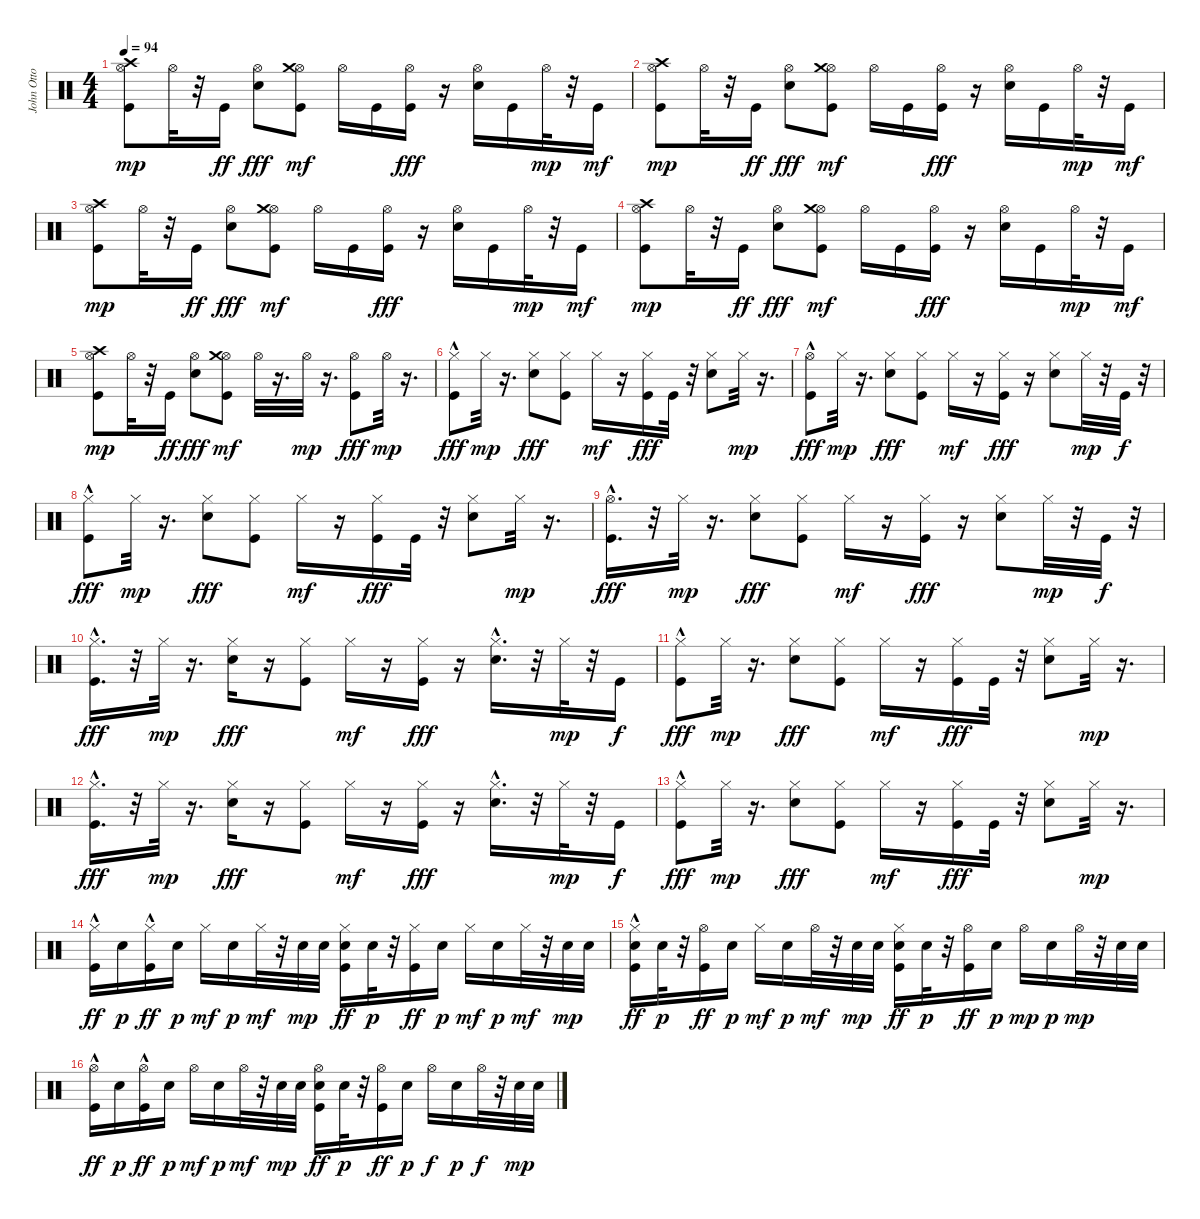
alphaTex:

\track ("John Otto" "John Otto") {instrument percussion}
\staff {score}
\articulation defaults
\ts (4 4)
\tempo 94
\clef neutral
\ks c
("Hi-Hat (open)" "Kick (hit)" "Crash high (hit)").8{dy mp} "Hi-Hat (open)".32 r.32 "Kick (hit)".16{dy ff} ("Hi-Hat (open)" "Electric Snare (hit)").8{dy fff} ("Hi-Hat (open)" "Kick (hit)" "Crash medium (hit)").8{dy mf} "Hi-Hat (open)".16 "Kick (hit)".16 ("Hi-Hat (open)" "Kick (hit)").16{dy fff} r.16 ("Hi-Hat (open)" "Electric Snare (hit)").16 "Kick (hit)".16 "Hi-Hat (open)".32{dy mp} r.32 "Kick (hit)".16{dy mf} |
("Hi-Hat (open)" "Kick (hit)" "Crash high (hit)").8{dy mp} "Hi-Hat (open)".32 r.32 "Kick (hit)".16{dy ff} ("Hi-Hat (open)" "Electric Snare (hit)").8{dy fff} ("Hi-Hat (open)" "Kick (hit)" "Crash medium (hit)").8{dy mf} "Hi-Hat (open)".16 "Kick (hit)".16 ("Hi-Hat (open)" "Kick (hit)").16{dy fff} r.16 ("Hi-Hat (open)" "Electric Snare (hit)").16 "Kick (hit)".16 "Hi-Hat (open)".32{dy mp} r.32 "Kick (hit)".16{dy mf} |
("Hi-Hat (open)" "Kick (hit)" "Crash high (hit)").8{dy mp} "Hi-Hat (open)".32 r.32 "Kick (hit)".16{dy ff} ("Hi-Hat (open)" "Electric Snare (hit)").8{dy fff} ("Hi-Hat (open)" "Kick (hit)" "Crash medium (hit)").8{dy mf} "Hi-Hat (open)".16 "Kick (hit)".16 ("Hi-Hat (open)" "Kick (hit)").16{dy fff} r.16 ("Hi-Hat (open)" "Electric Snare (hit)").16 "Kick (hit)".16 "Hi-Hat (open)".32{dy mp} r.32 "Kick (hit)".16{dy mf} |
("Hi-Hat (open)" "Kick (hit)" "Crash high (hit)").8{dy mp} "Hi-Hat (open)".32 r.32 "Kick (hit)".16{dy ff} ("Hi-Hat (open)" "Electric Snare (hit)").8{dy fff} ("Hi-Hat (open)" "Kick (hit)" "Crash medium (hit)").8{dy mf} "Hi-Hat (open)".16 "Kick (hit)".16 ("Hi-Hat (open)" "Kick (hit)").16{dy fff} r.16 ("Hi-Hat (open)" "Electric Snare (hit)").16 "Kick (hit)".16 "Hi-Hat (open)".32{dy mp} r.32 "Kick (hit)".16{dy mf} |
("Hi-Hat (open)" "Kick (hit)" "Crash high (hit)").8{dy mp} "Hi-Hat (open)".32 r.32 "Kick (hit)".16{dy ff} ("Hi-Hat (open)" "Electric Snare (hit)").8{dy fff} ("Hi-Hat (open)" "Kick (hit)" "Crash medium (hit)").8{dy mf} "Hi-Hat (open)".32 r.16{d} "Hi-Hat (open)".32{dy mp} r.16{d} ("Hi-Hat (open)" "Kick (hit)").8{dy fff} "Hi-Hat (open)".32{dy mp} r.16{d} |
("Hi-Hat (closed)"{hac} "Kick (hit)").8{dy fff} "Hi-Hat (closed)".32{dy mp} r.16{d} ("Hi-Hat (closed)" "Electric Snare (hit)").8{dy fff} ("Hi-Hat (closed)" "Kick (hit)").8 "Hi-Hat (closed)".16{dy mf} r.16 ("Hi-Hat (closed)" "Kick (hit)").16{dy fff} "Kick (hit)".32 r.32 ("Hi-Hat (closed)" "Electric Snare (hit)").8 "Hi-Hat (closed)".32{dy mp} r.16{d} |
("Hi-Hat (open)"{hac} "Kick (hit)").8{dy fff} "Hi-Hat (closed)".32{dy mp} r.16{d} ("Hi-Hat (closed)" "Electric Snare (hit)").8{dy fff} ("Hi-Hat (closed)" "Kick (hit)").8 "Hi-Hat (closed)".16{dy mf} r.16 ("Hi-Hat (closed)" "Kick (hit)").16{dy fff} r.16 ("Hi-Hat (closed)" "Electric Snare (hit)").8 "Hi-Hat (closed)".32{dy mp} r.32 "Kick (hit)".32{dy f} r.32 |
("Hi-Hat (closed)"{hac} "Kick (hit)").8{dy fff} "Hi-Hat (closed)".32{dy mp} r.16{d} ("Hi-Hat (closed)" "Electric Snare (hit)").8{dy fff} ("Hi-Hat (closed)" "Kick (hit)").8 "Hi-Hat (closed)".16{dy mf} r.16 ("Hi-Hat (closed)" "Kick (hit)").16{dy fff} "Kick (hit)".32 r.32 ("Hi-Hat (closed)" "Electric Snare (hit)").8 "Hi-Hat (closed)".32{dy mp} r.16{d} |
("Hi-Hat (open)"{hac} "Kick (hit)"{hac}).16{d dy fff} r.32 "Hi-Hat (closed)".32{dy mp} r.16{d} ("Hi-Hat (closed)" "Electric Snare (hit)").8{dy fff} ("Hi-Hat (closed)" "Kick (hit)").8 "Hi-Hat (closed)".16{dy mf} r.16 ("Hi-Hat (closed)" "Kick (hit)").16{dy fff} r.16 ("Hi-Hat (closed)" "Electric Snare (hit)").8 "Hi-Hat (closed)".32{dy mp} r.32 "Kick (hit)".32{dy f} r.32 |
("Hi-Hat (closed)"{hac} "Kick (hit)"{hac}).16{d dy fff} r.32 "Hi-Hat (closed)".32{dy mp} r.16{d} ("Hi-Hat (closed)" "Electric Snare (hit)").16{dy fff} r.16 ("Hi-Hat (closed)" "Kick (hit)").8 "Hi-Hat (closed)".16{dy mf} r.16 ("Hi-Hat (closed)" "Kick (hit)").16{dy fff} r.16 ("Hi-Hat (closed)" "Electric Snare (hit)"{hac}).16{d} r.32 "Hi-Hat (closed)".32{dy mp} r.32 "Kick (hit)".16{dy f} |
("Hi-Hat (closed)"{hac} "Kick (hit)").8{dy fff} "Hi-Hat (closed)".32{dy mp} r.16{d} ("Hi-Hat (closed)" "Electric Snare (hit)").8{dy fff} ("Hi-Hat (closed)" "Kick (hit)").8 "Hi-Hat (closed)".16{dy mf} r.16 ("Hi-Hat (closed)" "Kick (hit)").16{dy fff} "Kick (hit)".32 r.32 ("Hi-Hat (closed)" "Electric Snare (hit)").8 "Hi-Hat (closed)".32{dy mp} r.16{d} |
("Hi-Hat (closed)"{hac} "Kick (hit)"{hac}).16{d dy fff} r.32 "Hi-Hat (closed)".32{dy mp} r.16{d} ("Hi-Hat (closed)" "Electric Snare (hit)").16{dy fff} r.16 ("Hi-Hat (closed)" "Kick (hit)").8 "Hi-Hat (closed)".16{dy mf} r.16 ("Hi-Hat (closed)" "Kick (hit)").16{dy fff} r.16 ("Hi-Hat (closed)" "Electric Snare (hit)"{hac}).16{d} r.32 "Hi-Hat (closed)".32{dy mp} r.32 "Kick (hit)".16{dy f} |
("Hi-Hat (closed)"{hac} "Kick (hit)").8{dy fff} "Hi-Hat (closed)".32{dy mp} r.16{d} ("Hi-Hat (closed)" "Electric Snare (hit)").8{dy fff} ("Hi-Hat (closed)" "Kick (hit)").8 "Hi-Hat (closed)".16{dy mf} r.16 ("Hi-Hat (closed)" "Kick (hit)").16{dy fff} "Kick (hit)".32 r.32 ("Hi-Hat (closed)" "Electric Snare (hit)").8 "Hi-Hat (closed)".32{dy mp} r.16{d} |
("Hi-Hat (closed)"{hac} "Kick (hit)").16{dy ff} "Snare (hit) 2".16{dy p} ("Hi-Hat (closed)" "Kick (hit)"{hac}).16{dy ff} "Snare (hit) 2".16{dy p} "Hi-Hat (closed)".16{dy mf} "Snare (hit) 2".16{dy p} "Hi-Hat (closed)".32{dy mf} r.32 "Snare (hit) 2".32{dy mp} "Snare (hit) 2".32 ("Hi-Hat (closed)" "Snare (hit) 2" "Kick (hit)").16{dy ff} "Snare (hit) 2".32{dy p} r.32 ("Hi-Hat (closed)" "Kick (hit)").16{dy ff} "Snare (hit) 2".16{dy p} "Hi-Hat (closed)".16{dy mf} "Snare (hit) 2".16{dy p} "Hi-Hat (closed)".32{dy mf} r.32 "Snare (hit) 2".32{dy mp} "Snare (hit) 2".32 |
("Hi-Hat (closed)"{hac} "Snare (hit) 2" "Kick (hit)").16{dy ff} "Snare (hit) 2".32{dy p} r.32 ("Hi-Hat (open)" "Kick (hit)").16{dy ff} "Snare (hit) 2".16{dy p} "Hi-Hat (closed)".16{dy mf} "Snare (hit) 2".16{dy p} "Hi-Hat (open)".32{dy mf} r.32 "Snare (hit) 2".32{dy mp} "Snare (hit) 2".32 ("Hi-Hat (closed)" "Snare (hit) 2" "Kick (hit)").16{dy ff} "Snare (hit) 2".32{dy p} r.32 ("Hi-Hat (open)" "Kick (hit)").16{dy ff} "Snare (hit) 2".16{dy p} "Hi-Hat (open)".16{dy mp} "Snare (hit) 2".16{dy p} "Hi-Hat (open)".32{dy mp} r.32 "Snare (hit) 2".32 "Snare (hit) 2".32 |
("Hi-Hat (open)"{hac} "Kick (hit)").16{dy ff} "Snare (hit) 2".16{dy p} ("Hi-Hat (open)" "Kick (hit)"{hac}).16{dy ff} "Snare (hit) 2".16{dy p} "Hi-Hat (open)".16{dy mf} "Snare (hit) 2".16{dy p} "Hi-Hat (open)".32{dy mf} r.32 "Snare (hit) 2".32{dy mp} "Snare (hit) 2".32 ("Hi-Hat (open)" "Snare (hit) 2" "Kick (hit)").16{dy ff} "Snare (hit) 2".32{dy p} r.32 ("Hi-Hat (open)" "Kick (hit)").16{dy ff} "Snare (hit) 2".16{dy p} "Hi-Hat (open)".16{dy f} "Snare (hit) 2".16{dy p} "Hi-Hat (open)".32{dy f} r.32 "Snare (hit) 2".32{dy mp} "Snare (hit) 2".32
